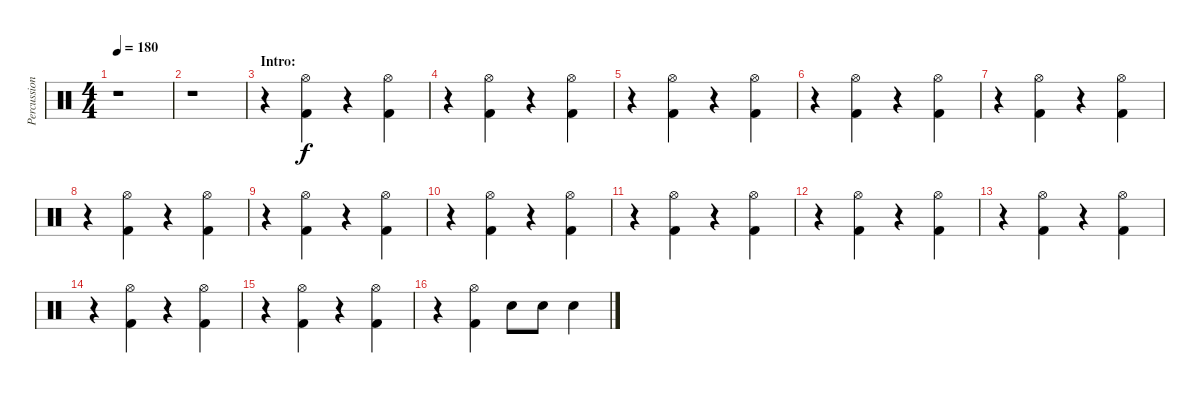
\track ("Percussion" "Percussion") {instrument percussion}
\staff {score}
\articulation defaults
\ts (4 4)
\tempo 180
\clef neutral
\ks c
r.1{dy f} |
r.1 |
\section ("" "Intro:")
r.4 ("Hi-Hat (open)" "Kick (hit) 2").4 r.4 ("Hi-Hat (open)" "Kick (hit) 2").4 |
r.4 ("Hi-Hat (open)" "Kick (hit) 2").4 r.4 ("Hi-Hat (open)" "Kick (hit) 2").4 |
r.4 ("Hi-Hat (open)" "Kick (hit) 2").4 r.4 ("Hi-Hat (open)" "Kick (hit) 2").4 |
r.4 ("Hi-Hat (open)" "Kick (hit) 2").4 r.4 ("Hi-Hat (open)" "Kick (hit) 2").4 |
r.4 ("Hi-Hat (open)" "Kick (hit) 2").4 r.4 ("Hi-Hat (open)" "Kick (hit) 2").4 |
r.4 ("Hi-Hat (open)" "Kick (hit) 2").4 r.4 ("Hi-Hat (open)" "Kick (hit) 2").4 |
r.4 ("Hi-Hat (open)" "Kick (hit) 2").4 r.4 ("Hi-Hat (open)" "Kick (hit) 2").4 |
r.4 ("Hi-Hat (open)" "Kick (hit) 2").4 r.4 ("Hi-Hat (open)" "Kick (hit) 2").4 |
r.4 ("Hi-Hat (open)" "Kick (hit) 2").4 r.4 ("Hi-Hat (open)" "Kick (hit) 2").4 |
r.4 ("Hi-Hat (open)" "Kick (hit) 2").4 r.4 ("Hi-Hat (open)" "Kick (hit) 2").4 |
r.4 ("Hi-Hat (open)" "Kick (hit) 2").4 r.4 ("Hi-Hat (open)" "Kick (hit) 2").4 |
r.4 ("Hi-Hat (open)" "Kick (hit) 2").4 r.4 ("Hi-Hat (open)" "Kick (hit) 2").4 |
r.4 ("Hi-Hat (open)" "Kick (hit) 2").4 r.4 ("Hi-Hat (open)" "Kick (hit) 2").4 |
r.4 ("Hi-Hat (open)" "Kick (hit) 2").4 "Electric Snare (hit)".8 "Electric Snare (hit)".8 "Electric Snare (hit)".4
